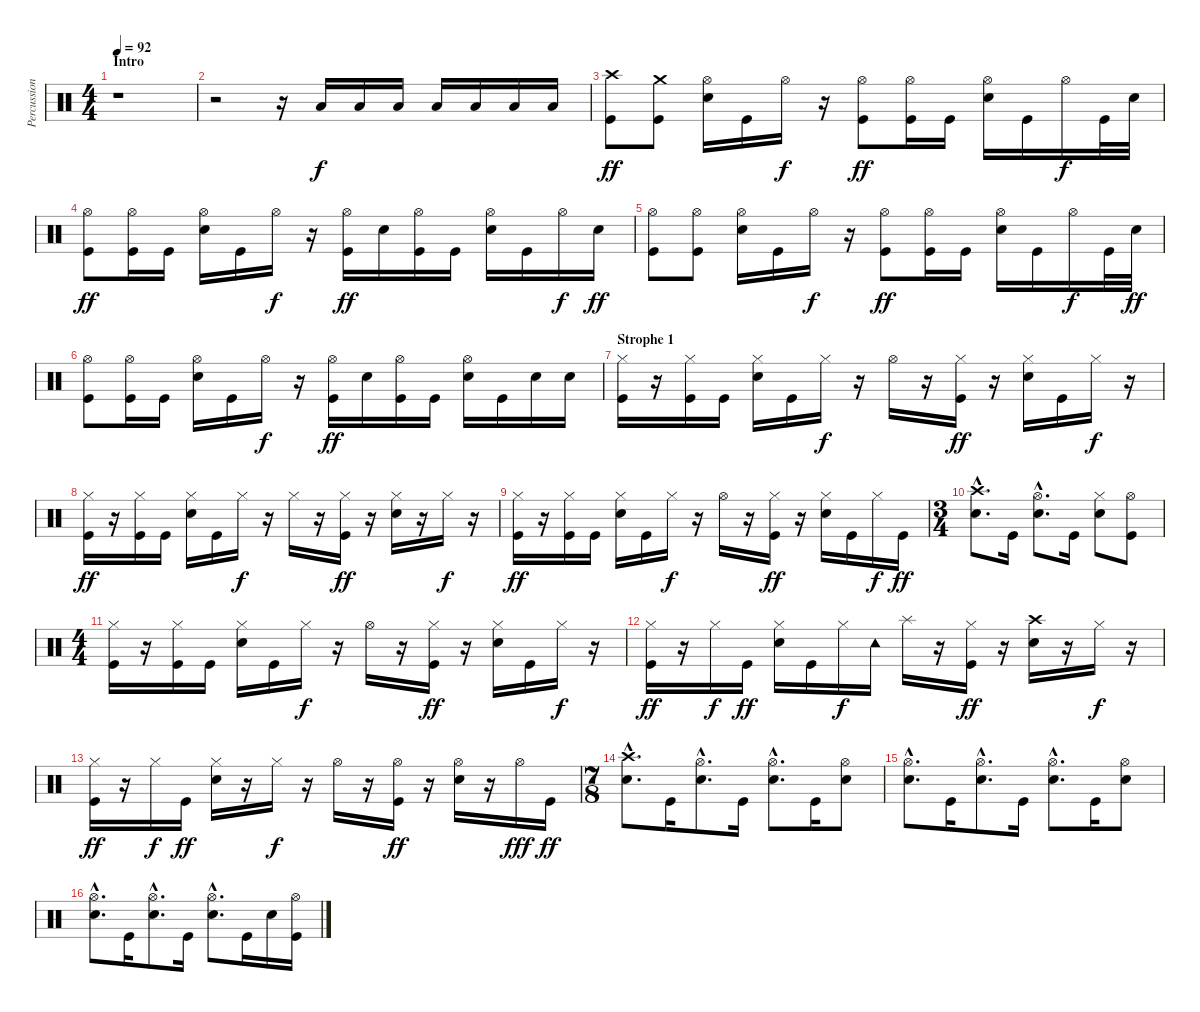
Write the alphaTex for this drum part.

\track ("Percussions" "Percussion") {instrument percussion}
\staff {score}
\articulation defaults
\ts (4 4)
\section ("" "Intro")
\tempo 92
\clef neutral
\ks c
r.1{dy f} |
r.2 r.16 "Low Tom (hit)".16 "Low Tom (hit)".16 "Low Tom (hit)".16 "Low Tom (hit)".16 "Low Tom (hit)".16 "Low Tom (hit)".16 "Low Tom (hit)".16 |
("Crash high (hit)" "Kick (hit)").8{dy ff} ("Crash medium (hit)" "Kick (hit)").8 ("Hi-Hat (open)" "Snare (hit) 2").16 "Kick (hit)".16 "Hi-Hat (open)".16{dy f} r.16 ("Hi-Hat (open)" "Kick (hit)").8{dy ff} ("Hi-Hat (open)" "Kick (hit)").16 "Kick (hit)".16 ("Hi-Hat (open)" "Snare (hit) 2").16 "Kick (hit)".16 "Hi-Hat (open)".16{dy f} "Kick (hit)".32 "Snare (hit) 2".32 |
("Hi-Hat (open)" "Kick (hit)").8{dy ff} ("Hi-Hat (open)" "Kick (hit)").16 "Kick (hit)".16 ("Hi-Hat (open)" "Snare (hit) 2").16 "Kick (hit)".16 "Hi-Hat (open)".16{dy f} r.16 ("Hi-Hat (open)" "Kick (hit)").16{dy ff} "Snare (hit) 2".16 ("Hi-Hat (open)" "Kick (hit)").16 "Kick (hit)".16 ("Hi-Hat (open)" "Snare (hit) 2").16 "Kick (hit)".16 "Hi-Hat (open)".16{dy f} "Snare (hit) 2".16{dy ff} |
("Hi-Hat (open)" "Kick (hit)").8 ("Hi-Hat (open)" "Kick (hit)").8 ("Hi-Hat (open)" "Snare (hit) 2").16 "Kick (hit)".16 "Hi-Hat (open)".16{dy f} r.16 ("Hi-Hat (open)" "Kick (hit)").8{dy ff} ("Hi-Hat (open)" "Kick (hit)").16 "Kick (hit)".16 ("Hi-Hat (open)" "Snare (hit) 2").16 "Kick (hit)".16 "Hi-Hat (open)".16{dy f} "Kick (hit)".32 "Snare (hit) 2".32{dy ff} |
("Hi-Hat (open)" "Kick (hit)").8 ("Hi-Hat (open)" "Kick (hit)").16 "Kick (hit)".16 ("Hi-Hat (open)" "Snare (hit) 2").16 "Kick (hit)".16 "Hi-Hat (open)".16{dy f} r.16 ("Hi-Hat (open)" "Kick (hit)").16{dy ff} "Snare (hit) 2".16 ("Hi-Hat (open)" "Kick (hit)").16 "Kick (hit)".16 ("Hi-Hat (open)" "Snare (hit) 2").16 "Kick (hit)".16 "Snare (hit) 2".16 "Snare (hit) 2".16 |
\section ("" "Strophe 1")
("Hi-Hat (closed)" "Kick (hit)").16 r.16 ("Hi-Hat (closed)" "Kick (hit)").16 "Kick (hit)".16 ("Hi-Hat (closed)" "Snare (hit) 2").16 "Kick (hit)".16 "Hi-Hat (closed)".16{dy f} r.16 "Hi-Hat (open)".16 r.16 ("Hi-Hat (closed)" "Kick (hit)").16{dy ff} r.16 ("Hi-Hat (closed)" "Snare (hit) 2").16 "Kick (hit)".16 "Hi-Hat (closed)".16{dy f} r.16 |
("Hi-Hat (closed)" "Kick (hit)").16{dy ff} r.16 ("Hi-Hat (closed)" "Kick (hit)").16 "Kick (hit)".16 ("Hi-Hat (closed)" "Snare (hit) 2").16 "Kick (hit)".16 "Hi-Hat (closed)".16{dy f} r.16 "Hi-Hat (closed)".16 r.16 ("Hi-Hat (closed)" "Kick (hit)").16{dy ff} r.16 ("Hi-Hat (closed)" "Snare (hit) 2").16 r.16 "Hi-Hat (closed)".16{dy f} r.16 |
("Hi-Hat (closed)" "Kick (hit)").16{dy ff} r.16 ("Hi-Hat (closed)" "Kick (hit)").16 "Kick (hit)".16 ("Hi-Hat (closed)" "Snare (hit) 2").16 "Kick (hit)".16 "Hi-Hat (closed)".16{dy f} r.16 "Hi-Hat (open)".16 r.16 ("Hi-Hat (closed)" "Kick (hit)").16{dy ff} r.16 ("Hi-Hat (closed)" "Snare (hit) 2").16 "Kick (hit)".16 "Hi-Hat (closed)".16{dy f} "Kick (hit)".16{dy ff} |
\ts (3 4)
("Crash high (hit)"{hac} "Snare (hit) 2"{hac}).8{d} "Kick (hit)".16 ("Hi-Hat (open)"{hac} "Snare (hit) 2"{hac}).8{d} "Kick (hit)".16 ("Hi-Hat (closed)" "Snare (hit) 2").8 ("Hi-Hat (open)" "Kick (hit)").8 |
\ts (4 4)
("Hi-Hat (closed)" "Kick (hit)").16 r.16 ("Hi-Hat (closed)" "Kick (hit)").16 "Kick (hit)".16 ("Hi-Hat (closed)" "Snare (hit) 2").16 "Kick (hit)".16 "Hi-Hat (closed)".16{dy f} r.16 "Hi-Hat (open)".16 r.16 ("Hi-Hat (closed)" "Kick (hit)").16{dy ff} r.16 ("Hi-Hat (closed)" "Snare (hit) 2").16 "Kick (hit)".16 "Hi-Hat (closed)".16{dy f} r.16 |
("Hi-Hat (closed)" "Kick (hit)").16{dy ff} r.16 "Hi-Hat (closed)".16{dy f} "Kick (hit)".16{dy ff} ("Hi-Hat (closed)" "Snare (hit) 2").16 "Kick (hit)".16 "Hi-Hat (closed)".16{dy f} "Tambourine (hit)".16 "Splash (hit)".16 r.16 ("Hi-Hat (closed)" "Kick (hit)").16{dy ff} r.16 ("Crash high (hit)" "Snare (hit) 2").16 r.16 "Hi-Hat (closed)".16{dy f} r.16 |
("Hi-Hat (closed)" "Kick (hit)").16{dy ff} r.16 "Hi-Hat (closed)".16{dy f} "Kick (hit)".16{dy ff} ("Hi-Hat (closed)" "Snare (hit) 2").16 r.16 "Hi-Hat (closed)".16{dy f} r.16 "Hi-Hat (open)".16 r.16 ("Hi-Hat (open)" "Kick (hit)").16{dy ff} r.16 ("Hi-Hat (open)" "Snare (hit) 2").16 r.16 "Hi-Hat (open)".16{dy fff} "Kick (hit)".16{dy ff} |
\ts (7 8)
("Crash high (hit)"{hac} "Snare (hit) 2"{hac}).8{d} "Kick (hit)".16 ("Hi-Hat (open)"{hac} "Snare (hit) 2"{hac}).8{d} "Kick (hit)".16 ("Hi-Hat (open)"{hac} "Snare (hit) 2"{hac}).8{d} "Kick (hit)".16 ("Hi-Hat (open)" "Snare (hit) 2").8 |
("Hi-Hat (open)"{hac} "Snare (hit) 2"{hac}).8{d} "Kick (hit)".16 ("Hi-Hat (open)"{hac} "Snare (hit) 2"{hac}).8{d} "Kick (hit)".16 ("Hi-Hat (open)"{hac} "Snare (hit) 2"{hac}).8{d} "Kick (hit)".16 ("Hi-Hat (open)" "Snare (hit) 2").8 |
("Hi-Hat (open)"{hac} "Snare (hit) 2"{hac}).8{d} "Kick (hit)".16 ("Hi-Hat (open)"{hac} "Snare (hit) 2"{hac}).8{d} "Kick (hit)".16 ("Hi-Hat (open)"{hac} "Snare (hit) 2"{hac}).8{d} "Kick (hit)".16 "Snare (hit) 2".16 ("Hi-Hat (open)" "Kick (hit)").16
